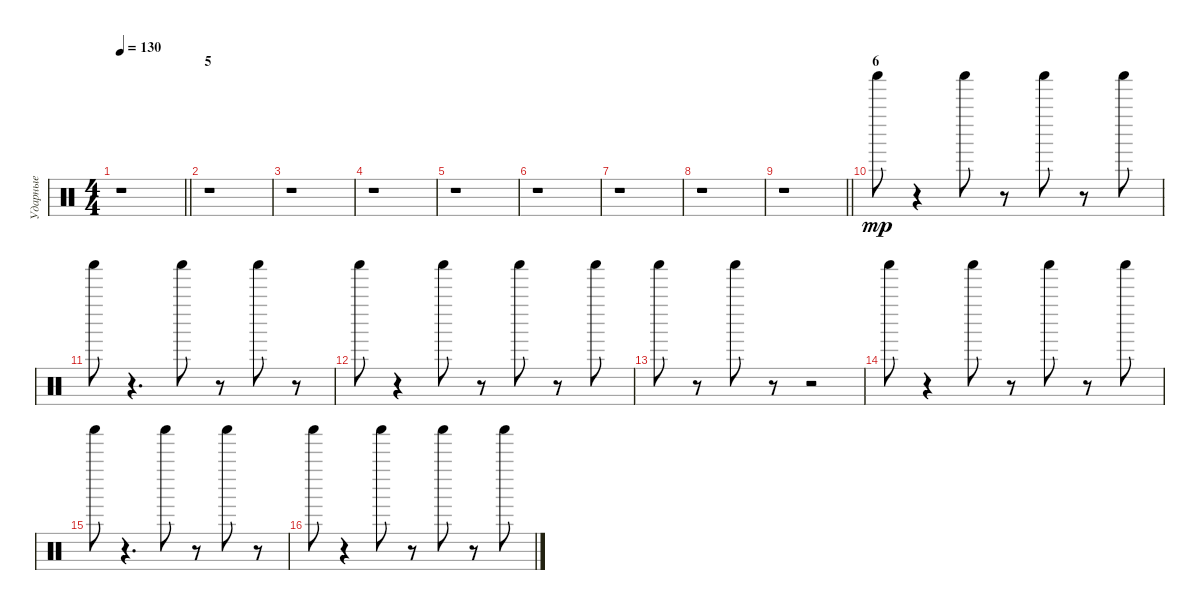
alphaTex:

\track ("Ударные" "Ударные") {instrument percussion}
\staff {score}
\articulation defaults
\ts (4 4)
\tempo 130
\clef neutral
\barLineRight lightlight
\ks c
r.1{dy mp} |
\section ("" "5")
r.1 |
r.1 |
r.1 |
r.1 |
r.1 |
r.1 |
r.1 |
\barLineRight lightlight
r.1 |
\section ("" "6")
"Shaker (hit)".8 r.4 "Shaker (hit)".8 r.8 "Shaker (hit)".8 r.8 "Shaker (hit)".8 |
"Shaker (hit)".8 r.4{d} "Shaker (hit)".8 r.8 "Shaker (hit)".8 r.8 |
"Shaker (hit)".8 r.4 "Shaker (hit)".8 r.8 "Shaker (hit)".8 r.8 "Shaker (hit)".8 |
"Shaker (hit)".8 r.8 "Shaker (hit)".8 r.8 r.2 |
"Shaker (hit)".8 r.4 "Shaker (hit)".8 r.8 "Shaker (hit)".8 r.8 "Shaker (hit)".8 |
"Shaker (hit)".8 r.4{d} "Shaker (hit)".8 r.8 "Shaker (hit)".8 r.8 |
"Shaker (hit)".8 r.4 "Shaker (hit)".8 r.8 "Shaker (hit)".8 r.8 "Shaker (hit)".8
